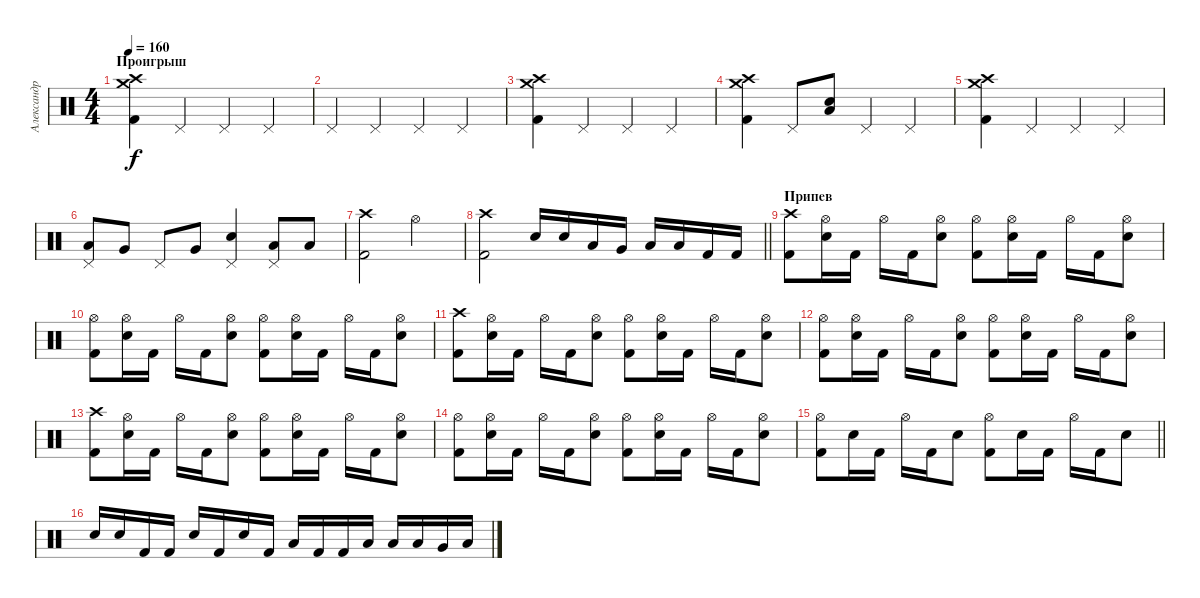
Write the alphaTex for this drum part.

\track ("Александр Карпухин" "Александр ") {instrument percussion}
\staff {score}
\articulation defaults
\ts (4 4)
\section ("" "Проигрыш")
\tempo 160
\clef neutral
\ks c
("Crash high (hit)" "Crash medium (hit)" "Kick (hit) 2").4{dy f} "Pedal Hi-Hat (hit)".4 "Pedal Hi-Hat (hit)".4 "Pedal Hi-Hat (hit)".4 |
"Pedal Hi-Hat (hit)".4 "Pedal Hi-Hat (hit)".4 "Pedal Hi-Hat (hit)".4 "Pedal Hi-Hat (hit)".4 |
("Crash high (hit)" "Crash medium (hit)" "Kick (hit) 2").4 "Pedal Hi-Hat (hit)".4 "Pedal Hi-Hat (hit)".4 "Pedal Hi-Hat (hit)".4 |
("Crash high (hit)" "Crash medium (hit)" "Kick (hit) 2").4 "Pedal Hi-Hat (hit)".8 ("Low Floor Tom (hit)" "Electric Snare (hit)").8 "Pedal Hi-Hat (hit)".4 "Pedal Hi-Hat (hit)".4 |
("Crash high (hit)" "Crash medium (hit)" "Kick (hit) 2").4 "Pedal Hi-Hat (hit)".4 "Pedal Hi-Hat (hit)".4 "Pedal Hi-Hat (hit)".4 |
("Pedal Hi-Hat (hit)" "Low Tom (hit)").8 "Very Low Tom (hit)".8 "Pedal Hi-Hat (hit)".8 "Very Low Tom (hit)".8 ("Pedal Hi-Hat (hit)" "Electric Snare (hit)").4 ("Pedal Hi-Hat (hit)" "Low Tom (hit)").8 "Low Tom (hit)".8 |
("Crash high (hit)" "Kick (hit) 2").2 "Hi-Hat (open)".2 |
\barLineRight lightlight
("Kick (hit) 2" "Crash high (hit)").2 "Electric Snare (hit)".16 "Electric Snare (hit)".16 "Low Tom (hit)".16 "Very Low Tom (hit)".16 "Low Floor Tom (hit)".16 "Low Floor Tom (hit)".16 "Kick (hit) 2".16 "Kick (hit) 2".16 |
\section ("" "Припев")
("Crash high (hit)" "Kick (hit) 2").8 ("Hi-Hat (open)" "Electric Snare (hit)").16 "Kick (hit) 2".16 "Hi-Hat (open)".16 "Kick (hit) 2".16 ("Hi-Hat (open)" "Electric Snare (hit)").8 ("Hi-Hat (open)" "Kick (hit) 2").8 ("Hi-Hat (open)" "Electric Snare (hit)").16 "Kick (hit) 2".16 "Hi-Hat (open)".16 "Kick (hit) 2".16 ("Hi-Hat (open)" "Electric Snare (hit)").8 |
("Hi-Hat (open)" "Kick (hit) 2").8 ("Hi-Hat (open)" "Electric Snare (hit)").16 "Kick (hit) 2".16 "Hi-Hat (open)".16 "Kick (hit) 2".16 ("Hi-Hat (open)" "Electric Snare (hit)").8 ("Hi-Hat (open)" "Kick (hit) 2").8 ("Hi-Hat (open)" "Electric Snare (hit)").16 "Kick (hit) 2".16 "Hi-Hat (open)".16 "Kick (hit) 2".16 ("Hi-Hat (open)" "Electric Snare (hit)").8 |
("Crash high (hit)" "Kick (hit) 2").8 ("Hi-Hat (open)" "Electric Snare (hit)").16 "Kick (hit) 2".16 "Hi-Hat (open)".16 "Kick (hit) 2".16 ("Hi-Hat (open)" "Electric Snare (hit)").8 ("Hi-Hat (open)" "Kick (hit) 2").8 ("Hi-Hat (open)" "Electric Snare (hit)").16 "Kick (hit) 2".16 "Hi-Hat (open)".16 "Kick (hit) 2".16 ("Hi-Hat (open)" "Electric Snare (hit)").8 |
("Hi-Hat (open)" "Kick (hit) 2").8 ("Hi-Hat (open)" "Electric Snare (hit)").16 "Kick (hit) 2".16 "Hi-Hat (open)".16 "Kick (hit) 2".16 ("Hi-Hat (open)" "Electric Snare (hit)").8 ("Hi-Hat (open)" "Kick (hit) 2").8 ("Hi-Hat (open)" "Electric Snare (hit)").16 "Kick (hit) 2".16 "Hi-Hat (open)".16 "Kick (hit) 2".16 ("Hi-Hat (open)" "Electric Snare (hit)").8 |
("Crash high (hit)" "Kick (hit) 2").8 ("Hi-Hat (open)" "Electric Snare (hit)").16 "Kick (hit) 2".16 "Hi-Hat (open)".16 "Kick (hit) 2".16 ("Hi-Hat (open)" "Electric Snare (hit)").8 ("Hi-Hat (open)" "Kick (hit) 2").8 ("Hi-Hat (open)" "Electric Snare (hit)").16 "Kick (hit) 2".16 "Hi-Hat (open)".16 "Kick (hit) 2".16 ("Hi-Hat (open)" "Electric Snare (hit)").8 |
("Hi-Hat (open)" "Kick (hit) 2").8 ("Hi-Hat (open)" "Electric Snare (hit)").16 "Kick (hit) 2".16 "Hi-Hat (open)".16 "Kick (hit) 2".16 ("Hi-Hat (open)" "Electric Snare (hit)").8 ("Hi-Hat (open)" "Kick (hit) 2").8 ("Hi-Hat (open)" "Electric Snare (hit)").16 "Kick (hit) 2".16 "Hi-Hat (open)".16 "Kick (hit) 2".16 ("Hi-Hat (open)" "Electric Snare (hit)").8 |
\barLineRight lightlight
("Hi-Hat (open)" "Kick (hit) 2").8 "Electric Snare (hit)".16 "Kick (hit) 2".16 "Hi-Hat (open)".16 "Kick (hit) 2".16 "Electric Snare (hit)".8 ("Hi-Hat (open)" "Kick (hit) 2").8 "Electric Snare (hit)".16 "Kick (hit) 2".16 "Hi-Hat (open)".16 "Kick (hit) 2".16 "Electric Snare (hit)".8 |
"Electric Snare (hit)".16 "Electric Snare (hit)".16 "Kick (hit) 2".16 "Kick (hit) 2".16 "Electric Snare (hit)".16 "Kick (hit) 2".16 "Electric Snare (hit)".16 "Kick (hit) 2".16 "Low Floor Tom (hit)".16 "Kick (hit) 2".16 "Kick (hit) 2".16 "Low Floor Tom (hit)".16 "Low Tom (hit)".16 "Low Tom (hit)".16 "Very Low Tom (hit)".16 "Low Floor Tom (hit)".16
